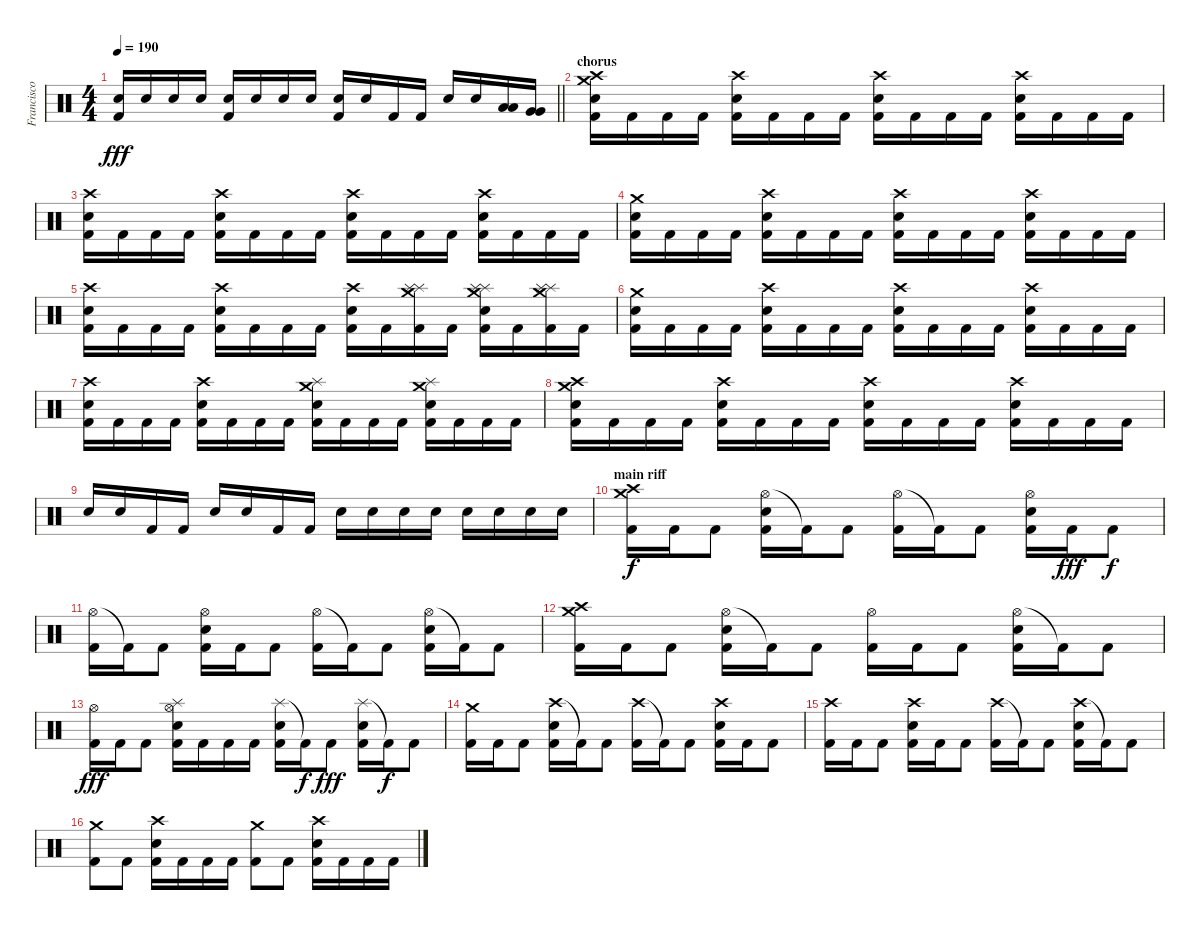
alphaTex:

\track ("Francisco Izquierdo (Percusión)" "Francisco ") {instrument percussion}
\staff {score}
\articulation defaults
\ts (4 4)
\tempo 190
\clef neutral
\barLineRight lightlight
\ks c
("Electric Snare (hit)" "Kick (hit) 2").16{dy fff} "Electric Snare (hit)".16 "Electric Snare (hit)".16 "Electric Snare (hit)".16 ("Electric Snare (hit)" "Kick (hit) 2").16 "Electric Snare (hit)".16 "Electric Snare (hit)".16 "Electric Snare (hit)".16 ("Electric Snare (hit)" "Kick (hit) 2").16 "Electric Snare (hit)".16 "Kick (hit) 2".16 "Kick (hit) 2".16 "Electric Snare (hit)".16 "Electric Snare (hit)".16 ("Low Tom (hit)" "Low Tom (hit)").16 ("Very Low Tom (hit)" "Very Low Tom (hit)").16 |
\section ("" "chorus")
("Crash medium (hit)" "Crash high (hit)" "Electric Snare (hit)" "Kick (hit) 2").16 "Kick (hit) 2".16 "Kick (hit) 2".16 "Kick (hit) 2".16 ("Crash high (hit)" "Electric Snare (hit)" "Kick (hit) 2").16 "Kick (hit) 2".16 "Kick (hit) 2".16 "Kick (hit) 2".16 ("Crash high (hit)" "Electric Snare (hit)" "Kick (hit) 2").16 "Kick (hit) 2".16 "Kick (hit) 2".16 "Kick (hit) 2".16 ("Crash high (hit)" "Electric Snare (hit)" "Kick (hit) 2").16 "Kick (hit) 2".16 "Kick (hit) 2".16 "Kick (hit) 2".16 |
("Crash high (hit)" "Electric Snare (hit)" "Kick (hit) 2").16 "Kick (hit) 2".16 "Kick (hit) 2".16 "Kick (hit) 2".16 ("Crash high (hit)" "Electric Snare (hit)" "Kick (hit) 2").16 "Kick (hit) 2".16 "Kick (hit) 2".16 "Kick (hit) 2".16 ("Crash high (hit)" "Electric Snare (hit)" "Kick (hit) 2").16 "Kick (hit) 2".16 "Kick (hit) 2".16 "Kick (hit) 2".16 ("Crash high (hit)" "Electric Snare (hit)" "Kick (hit) 2").16 "Kick (hit) 2".16 "Kick (hit) 2".16 "Kick (hit) 2".16 |
("Crash medium (hit)" "Electric Snare (hit)" "Kick (hit) 2").16 "Kick (hit) 2".16 "Kick (hit) 2".16 "Kick (hit) 2".16 ("Crash high (hit)" "Electric Snare (hit)" "Kick (hit) 2").16 "Kick (hit) 2".16 "Kick (hit) 2".16 "Kick (hit) 2".16 ("Crash high (hit)" "Electric Snare (hit)" "Kick (hit) 2").16 "Kick (hit) 2".16 "Kick (hit) 2".16 "Kick (hit) 2".16 ("Crash high (hit)" "Electric Snare (hit)" "Kick (hit) 2").16 "Kick (hit) 2".16 "Kick (hit) 2".16 "Kick (hit) 2".16 |
("Crash high (hit)" "Electric Snare (hit)" "Kick (hit) 2").16 "Kick (hit) 2".16 "Kick (hit) 2".16 "Kick (hit) 2".16 ("Crash high (hit)" "Electric Snare (hit)" "Kick (hit) 2").16 "Kick (hit) 2".16 "Kick (hit) 2".16 "Kick (hit) 2".16 ("Crash high (hit)" "Electric Snare (hit)" "Kick (hit) 2").16 "Kick (hit) 2".16 ("Splash (hit)" "Splash (hit)" "Crash medium (hit)" "Kick (hit) 2").16 "Kick (hit) 2".16 ("Splash (hit)" "Splash (hit)" "Crash medium (hit)" "Electric Snare (hit)" "Kick (hit) 2").16 "Kick (hit) 2".16 ("Splash (hit)" "Splash (hit)" "Crash medium (hit)" "Kick (hit) 2").16 "Kick (hit) 2".16 |
("Crash medium (hit)" "Electric Snare (hit)" "Kick (hit) 2").16 "Kick (hit) 2".16 "Kick (hit) 2".16 "Kick (hit) 2".16 ("Crash high (hit)" "Electric Snare (hit)" "Kick (hit) 2").16 "Kick (hit) 2".16 "Kick (hit) 2".16 "Kick (hit) 2".16 ("Crash high (hit)" "Electric Snare (hit)" "Kick (hit) 2").16 "Kick (hit) 2".16 "Kick (hit) 2".16 "Kick (hit) 2".16 ("Crash high (hit)" "Electric Snare (hit)" "Kick (hit) 2").16 "Kick (hit) 2".16 "Kick (hit) 2".16 "Kick (hit) 2".16 |
("Crash high (hit)" "Electric Snare (hit)" "Kick (hit) 2").16 "Kick (hit) 2".16 "Kick (hit) 2".16 "Kick (hit) 2".16 ("Crash high (hit)" "Electric Snare (hit)" "Kick (hit) 2").16 "Kick (hit) 2".16 "Kick (hit) 2".16 "Kick (hit) 2".16 ("Crash medium (hit)" "Splash (hit)" "Electric Snare (hit)" "Kick (hit) 2").16 "Kick (hit) 2".16 "Kick (hit) 2".16 "Kick (hit) 2".16 ("Crash medium (hit)" "Splash (hit)" "Electric Snare (hit)" "Kick (hit) 2").16 "Kick (hit) 2".16 "Kick (hit) 2".16 "Kick (hit) 2".16 |
("Crash medium (hit)" "Crash high (hit)" "Electric Snare (hit)" "Kick (hit) 2").16 "Kick (hit) 2".16 "Kick (hit) 2".16 "Kick (hit) 2".16 ("Crash high (hit)" "Electric Snare (hit)" "Kick (hit) 2").16 "Kick (hit) 2".16 "Kick (hit) 2".16 "Kick (hit) 2".16 ("Crash high (hit)" "Electric Snare (hit)" "Kick (hit) 2").16 "Kick (hit) 2".16 "Kick (hit) 2".16 "Kick (hit) 2".16 ("Crash high (hit)" "Electric Snare (hit)" "Kick (hit) 2").16 "Kick (hit) 2".16 "Kick (hit) 2".16 "Kick (hit) 2".16 |
"Electric Snare (hit)".16 "Electric Snare (hit)".16 "Kick (hit) 2".16 "Kick (hit) 2".16 "Electric Snare (hit)".16 "Electric Snare (hit)".16 "Kick (hit) 2".16 "Kick (hit) 2".16 "Electric Snare (hit)".16 "Electric Snare (hit)".16 "Electric Snare (hit)".16 "Electric Snare (hit)".16 "Electric Snare (hit)".16 "Electric Snare (hit)".16 "Electric Snare (hit)".16 "Electric Snare (hit)".16 |
\section ("" "main riff")
("Crash medium (hit)" "Crash high (hit)" "Kick (hit) 2").16{dy f} "Kick (hit) 2".16 "Kick (hit) 2".8 ("Hi-Hat (open)" "Electric Snare (hit)" "Kick (hit) 2").16 "Kick (hit) 2"{t}.16 "Kick (hit) 2".8 ("Hi-Hat (open)" "Kick (hit) 2").16 "Kick (hit) 2"{t}.16 "Kick (hit) 2".8 ("Hi-Hat (open)" "Electric Snare (hit)" "Kick (hit) 2").16 "Kick (hit) 2".16{dy fff} "Kick (hit) 2".8{dy f} |
("Hi-Hat (open)" "Kick (hit) 2").16 "Kick (hit) 2"{t}.16 "Kick (hit) 2".8 ("Hi-Hat (open)" "Electric Snare (hit)" "Kick (hit) 2").16 "Kick (hit) 2".16 "Kick (hit) 2".8 ("Hi-Hat (open)" "Kick (hit) 2").16 "Kick (hit) 2"{t}.16 "Kick (hit) 2".8 ("Hi-Hat (open)" "Electric Snare (hit)" "Kick (hit) 2").16 "Kick (hit) 2"{t}.16 "Kick (hit) 2".8 |
("Crash medium (hit)" "Crash high (hit)" "Kick (hit) 2").16 "Kick (hit) 2".16 "Kick (hit) 2".8 ("Hi-Hat (open)" "Electric Snare (hit)" "Kick (hit) 2").16 "Kick (hit) 2"{t}.16 "Kick (hit) 2".8 ("Hi-Hat (open)" "Kick (hit) 2").16 "Kick (hit) 2".16 "Kick (hit) 2".8 ("Hi-Hat (open)" "Electric Snare (hit)" "Kick (hit) 2").16 "Kick (hit) 2"{t}.16 "Kick (hit) 2".8 |
("Hi-Hat (open)" "Kick (hit) 2").16{dy fff} "Kick (hit) 2".16 "Kick (hit) 2".8 ("Hi-Hat (open)" "Splash (hit)" "Electric Snare (hit)" "Kick (hit) 2").16 "Kick (hit) 2".16 "Kick (hit) 2".16 "Kick (hit) 2".16 ("Splash (hit)" "Electric Snare (hit)" "Kick (hit) 2").16 "Kick (hit) 2"{t}.16{dy f} "Kick (hit) 2".8{dy fff} ("Splash (hit)" "Electric Snare (hit)" "Kick (hit) 2").16 "Kick (hit) 2"{t}.16{dy f} "Kick (hit) 2".8 |
("Crash medium (hit)" "Kick (hit) 2").16 "Kick (hit) 2".16 "Kick (hit) 2".8 ("Crash high (hit)" "Electric Snare (hit)" "Kick (hit) 2").16 "Kick (hit) 2"{t}.16 "Kick (hit) 2".8 ("Crash high (hit)" "Kick (hit) 2").16 "Kick (hit) 2"{t}.16 "Kick (hit) 2".8 ("Crash high (hit)" "Electric Snare (hit)" "Kick (hit) 2").16 "Kick (hit) 2".16 "Kick (hit) 2".8 |
("Crash high (hit)" "Kick (hit) 2").16 "Kick (hit) 2".16 "Kick (hit) 2".8 ("Crash high (hit)" "Electric Snare (hit)" "Kick (hit) 2").16 "Kick (hit) 2".16 "Kick (hit) 2".8 ("Crash high (hit)" "Kick (hit) 2").16 "Kick (hit) 2"{t}.16 "Kick (hit) 2".8 ("Crash high (hit)" "Electric Snare (hit)" "Kick (hit) 2").16 "Kick (hit) 2"{t}.16 "Kick (hit) 2".8 |
("Crash medium (hit)" "Kick (hit) 2").8 "Kick (hit) 2".8 ("Crash high (hit)" "Electric Snare (hit)" "Kick (hit) 2").16 "Kick (hit) 2".16 "Kick (hit) 2".16 "Kick (hit) 2".16 ("Crash medium (hit)" "Kick (hit) 2").8 "Kick (hit) 2".8 ("Crash high (hit)" "Electric Snare (hit)" "Kick (hit) 2").16 "Kick (hit) 2".16 "Kick (hit) 2".16 "Kick (hit) 2".16
